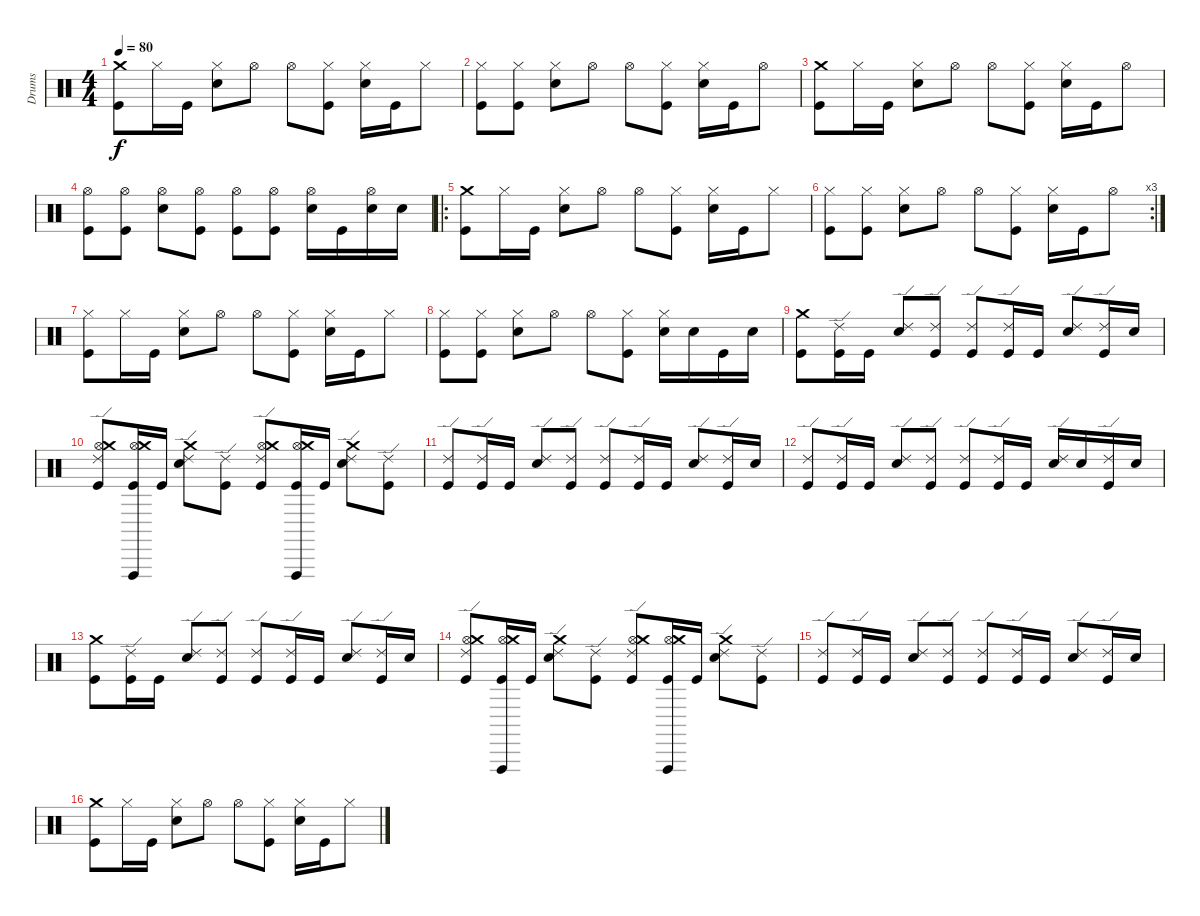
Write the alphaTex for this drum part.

\track ("Drums" "Drums") {instrument percussion}
\staff {score}
\articulation defaults
\ts (4 4)
\tempo 80
\clef neutral
\ks c
("Kick (hit)" "Crash medium (hit)").8{dy f} "Hi-Hat (closed)".16 "Kick (hit)".16 ("Electric Snare (hit)" "Hi-Hat (closed)").8 "Hi-Hat (open)".8 "Hi-Hat (open)".8 ("Kick (hit)" "Hi-Hat (closed)").8 ("Electric Snare (hit)" "Hi-Hat (closed)").16 "Kick (hit)".16 "Hi-Hat (closed)".8 |
("Kick (hit)" "Hi-Hat (closed)").8 ("Kick (hit)" "Hi-Hat (closed)").8 ("Electric Snare (hit)" "Hi-Hat (closed)").8 "Hi-Hat (open)".8 "Hi-Hat (open)".8 ("Kick (hit)" "Hi-Hat (closed)").8 ("Electric Snare (hit)" "Hi-Hat (closed)").16 "Kick (hit)".16 "Hi-Hat (open)".8 |
("Kick (hit)" "Crash medium (hit)").8 "Hi-Hat (closed)".16 "Kick (hit)".16 ("Electric Snare (hit)" "Hi-Hat (closed)").8 "Hi-Hat (open)".8 "Hi-Hat (open)".8 ("Kick (hit)" "Hi-Hat (closed)").8 ("Electric Snare (hit)" "Hi-Hat (closed)").16 "Kick (hit)".16 "Hi-Hat (open)".8 |
("Kick (hit)" "Hi-Hat (open)").8 ("Kick (hit)" "Hi-Hat (open)").8 ("Electric Snare (hit)" "Hi-Hat (open)").8 ("Kick (hit)" "Hi-Hat (open)").8 ("Kick (hit)" "Hi-Hat (open)").8 ("Kick (hit)" "Hi-Hat (open)").8 ("Electric Snare (hit)" "Hi-Hat (open)").16 "Kick (hit)".16 ("Electric Snare (hit)" "Hi-Hat (open)").16 "Electric Snare (hit)".16 |
\ro
("Kick (hit)" "Crash medium (hit)").8 "Hi-Hat (closed)".16 "Kick (hit)".16 ("Electric Snare (hit)" "Hi-Hat (closed)").8 "Hi-Hat (open)".8 "Hi-Hat (open)".8 ("Kick (hit)" "Hi-Hat (closed)").8 ("Electric Snare (hit)" "Hi-Hat (closed)").16 "Kick (hit)".16 "Hi-Hat (closed)".8 |
\rc 3
("Kick (hit)" "Hi-Hat (closed)").8 ("Kick (hit)" "Hi-Hat (closed)").8 ("Electric Snare (hit)" "Hi-Hat (closed)").8 "Hi-Hat (open)".8 "Hi-Hat (open)".8 ("Kick (hit)" "Hi-Hat (closed)").8 ("Electric Snare (hit)" "Hi-Hat (closed)").16 "Kick (hit)".16 "Hi-Hat (open)".8 |
("Kick (hit)" "Hi-Hat (closed)").8 "Hi-Hat (closed)".16 "Kick (hit)".16 ("Electric Snare (hit)" "Hi-Hat (closed)").8 "Hi-Hat (open)".8 "Hi-Hat (open)".8 ("Kick (hit)" "Hi-Hat (closed)").8 ("Electric Snare (hit)" "Hi-Hat (closed)").16 "Kick (hit)".16 "Hi-Hat (closed)".8 |
("Kick (hit)" "Hi-Hat (closed)").8 ("Kick (hit)" "Hi-Hat (closed)").8 ("Electric Snare (hit)" "Hi-Hat (closed)").8 "Hi-Hat (open)".8 "Hi-Hat (open)".8 ("Kick (hit)" "Hi-Hat (closed)").8 ("Electric Snare (hit)" "Hi-Hat (closed)").16 "Electric Snare (hit)".16 "Kick (hit)".16 "Electric Snare (hit)".16 |
("Kick (hit)" "Crash medium (hit)").8 ("Kick (hit)" "Ride (edge) 2").16 "Kick (hit)".16 ("Electric Snare (hit)" "Ride (edge) 2").8 ("Kick (hit)" "Ride (edge) 2").8 ("Kick (hit)" "Ride (edge) 2").8 ("Kick (hit)" "Ride (edge) 2").16 "Kick (hit)".16 ("Electric Snare (hit)" "Ride (edge) 2").8 ("Kick (hit)" "Ride (edge) 2").16 "Electric Snare (hit)".16 |
("Kick (hit)" "Hi-Hat (open)" "Crash medium (hit)" "Ride (edge) 2").8 ("Kick (hit)" "Hi-Hat (open)" "Crash medium (hit)" "Vibraslap (hit)").16 "Kick (hit)".16 ("Electric Snare (hit)" "Crash medium (hit)" "Ride (edge) 2").8 ("Kick (hit)" "Ride (edge) 2").8 ("Kick (hit)" "Hi-Hat (open)" "Crash medium (hit)" "Ride (edge) 2").8 ("Kick (hit)" "Hi-Hat (open)" "Crash medium (hit)" "Vibraslap (hit)").16 "Kick (hit)".16 ("Electric Snare (hit)" "Crash medium (hit)" "Ride (edge) 2").8 ("Kick (hit)" "Ride (edge) 2").8 |
("Kick (hit)" "Ride (edge) 2").8 ("Kick (hit)" "Ride (edge) 2").16 "Kick (hit)".16 ("Electric Snare (hit)" "Ride (edge) 2").8 ("Kick (hit)" "Ride (edge) 2").8 ("Kick (hit)" "Ride (edge) 2").8 ("Kick (hit)" "Ride (edge) 2").16 "Kick (hit)".16 ("Electric Snare (hit)" "Ride (edge) 2").8 ("Kick (hit)" "Ride (edge) 2").16 "Electric Snare (hit)".16 |
("Kick (hit)" "Ride (edge) 2").8 ("Kick (hit)" "Ride (edge) 2").16 "Kick (hit)".16 ("Electric Snare (hit)" "Ride (edge) 2").8 ("Kick (hit)" "Ride (edge) 2").8 ("Kick (hit)" "Ride (edge) 2").8 ("Kick (hit)" "Ride (edge) 2").16 "Kick (hit)".16 ("Electric Snare (hit)" "Ride (edge) 2").16 "Electric Snare (hit)".16 ("Kick (hit)" "Ride (edge) 2").16 "Electric Snare (hit)".16 |
("Kick (hit)" "Crash medium (hit)").8 ("Kick (hit)" "Ride (edge) 2").16 "Kick (hit)".16 ("Electric Snare (hit)" "Ride (edge) 2").8 ("Kick (hit)" "Ride (edge) 2").8 ("Kick (hit)" "Ride (edge) 2").8 ("Kick (hit)" "Ride (edge) 2").16 "Kick (hit)".16 ("Electric Snare (hit)" "Ride (edge) 2").8 ("Kick (hit)" "Ride (edge) 2").16 "Electric Snare (hit)".16 |
("Kick (hit)" "Hi-Hat (open)" "Crash medium (hit)" "Ride (edge) 2").8 ("Kick (hit)" "Hi-Hat (open)" "Crash medium (hit)" "Vibraslap (hit)").16 "Kick (hit)".16 ("Electric Snare (hit)" "Crash medium (hit)" "Ride (edge) 2").8 ("Kick (hit)" "Ride (edge) 2").8 ("Kick (hit)" "Hi-Hat (open)" "Crash medium (hit)" "Ride (edge) 2").8 ("Kick (hit)" "Hi-Hat (open)" "Crash medium (hit)" "Vibraslap (hit)").16 "Kick (hit)".16 ("Electric Snare (hit)" "Crash medium (hit)" "Ride (edge) 2").8 ("Kick (hit)" "Ride (edge) 2").8 |
("Kick (hit)" "Ride (edge) 2").8 ("Kick (hit)" "Ride (edge) 2").16 "Kick (hit)".16 ("Electric Snare (hit)" "Ride (edge) 2").8 ("Kick (hit)" "Ride (edge) 2").8 ("Kick (hit)" "Ride (edge) 2").8 ("Kick (hit)" "Ride (edge) 2").16 "Kick (hit)".16 ("Electric Snare (hit)" "Ride (edge) 2").8 ("Kick (hit)" "Ride (edge) 2").16 "Electric Snare (hit)".16 |
("Kick (hit)" "Crash medium (hit)").8 "Hi-Hat (closed)".16 "Kick (hit)".16 ("Electric Snare (hit)" "Hi-Hat (closed)").8 "Hi-Hat (open)".8 "Hi-Hat (open)".8 ("Kick (hit)" "Hi-Hat (closed)").8 ("Electric Snare (hit)" "Hi-Hat (closed)").16 "Kick (hit)".16 "Hi-Hat (closed)".8
